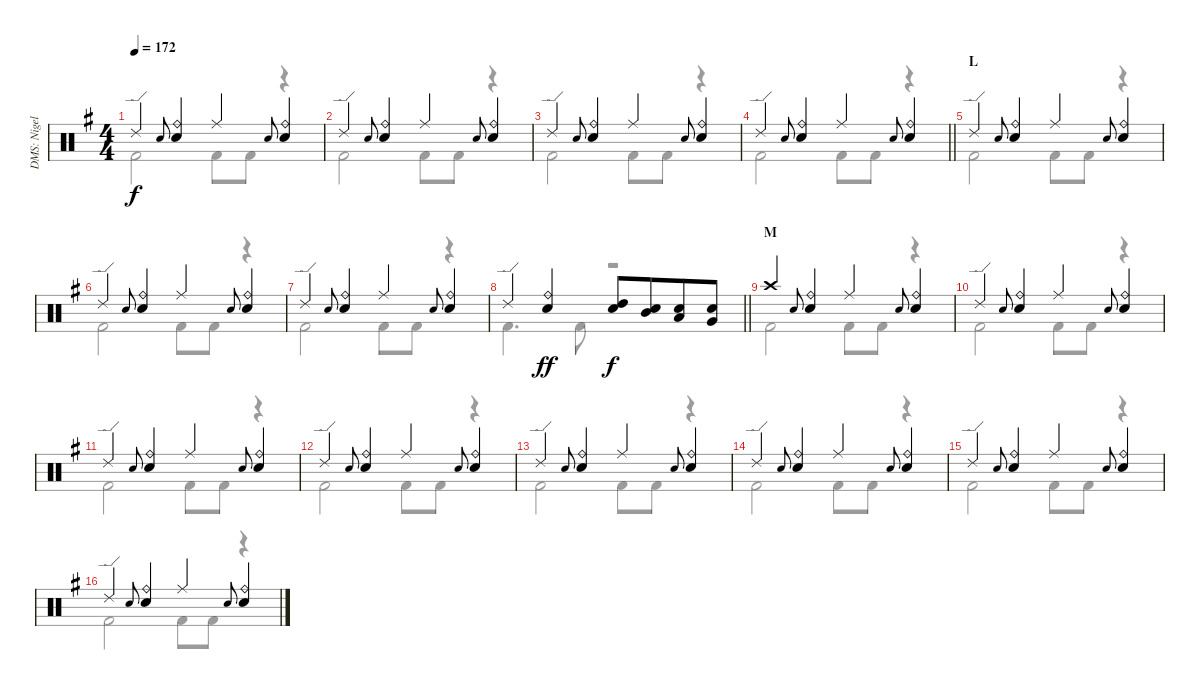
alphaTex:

\track ("DMS: Nigel Olsson" "DMS: Nigel") {instrument percussion}
\staff {score}
\articulation defaults
\voice
\ts (4 4)
\tempo 172
\clef neutral
\ks g "Ride (edge) 2".4{dy f} "Snare (hit) 2".8{gr onbeat}
("Ride (bell)" "Electric Snare (hit)").4 "Ride (middle)".4 "Snare (hit) 2".8{gr onbeat} ("Ride (bell)" "Electric Snare (hit)").4 |
"Ride (edge) 2".4 "Snare (hit) 2".8{gr onbeat} ("Ride (bell)" "Electric Snare (hit)").4 "Ride (middle)".4 "Snare (hit) 2".8{gr onbeat} ("Ride (bell)" "Electric Snare (hit)").4 |
"Ride (edge) 2".4 "Snare (hit) 2".8{gr onbeat} ("Ride (bell)" "Electric Snare (hit)").4 "Ride (middle)".4 "Snare (hit) 2".8{gr onbeat} ("Ride (bell)" "Electric Snare (hit)").4 |
\barLineRight lightlight "Ride (edge) 2".4 "Snare (hit) 2".8{gr onbeat}
("Ride (bell)" "Electric Snare (hit)").4 "Ride (middle)".4 "Snare (hit) 2".8{gr onbeat} ("Ride (bell)" "Electric Snare (hit)").4 |
\section ("" "L")
"Ride (edge) 2".4 "Snare (hit) 2".8{gr onbeat} ("Ride (bell)" "Electric Snare (hit)").4 "Ride (middle)".4 "Snare (hit) 2".8{gr onbeat} ("Ride (bell)" "Electric Snare (hit)").4 |
"Ride (edge) 2".4 "Snare (hit) 2".8{gr onbeat} ("Ride (bell)" "Electric Snare (hit)").4 "Ride (middle)".4 "Snare (hit) 2".8{gr onbeat} ("Ride (bell)" "Electric Snare (hit)").4 |
"Ride (edge) 2".4 "Snare (hit) 2".8{gr onbeat} ("Ride (bell)" "Electric Snare (hit)").4 "Ride (middle)".4 "Snare (hit) 2".8{gr onbeat} ("Ride (bell)" "Electric Snare (hit)").4 |
\barLineRight lightlight "Ride (edge) 2".4
("Ride (bell)" "Electric Snare (hit)").4{dy ff} ("Electric Snare (hit)" "High Tom (hit)").8{dy f} ("Electric Snare (hit)" "Mid Tom (hit)").8{beam merge} ("Electric Snare (hit)" "Low Tom (hit)").8 ("Electric Snare (hit)" "Very Low Tom (hit)").8 |
\section ("" "M")
"Crash high (hit)".4 "Snare (hit) 2".8{gr onbeat} ("Ride (bell)" "Electric Snare (hit)").4 "Ride (middle)".4 "Snare (hit) 2".8{gr onbeat} ("Ride (bell)" "Electric Snare (hit)").4 |
"Ride (edge) 2".4 "Snare (hit) 2".8{gr onbeat} ("Ride (bell)" "Electric Snare (hit)").4 "Ride (middle)".4 "Snare (hit) 2".8{gr onbeat} ("Ride (bell)" "Electric Snare (hit)").4 |
"Ride (edge) 2".4 "Snare (hit) 2".8{gr onbeat} ("Ride (bell)" "Electric Snare (hit)").4 "Ride (middle)".4 "Snare (hit) 2".8{gr onbeat} ("Ride (bell)" "Electric Snare (hit)").4 |
"Ride (edge) 2".4 "Snare (hit) 2".8{gr onbeat} ("Ride (bell)" "Electric Snare (hit)").4 "Ride (middle)".4 "Snare (hit) 2".8{gr onbeat} ("Ride (bell)" "Electric Snare (hit)").4 |
"Ride (edge) 2".4 "Snare (hit) 2".8{gr onbeat} ("Ride (bell)" "Electric Snare (hit)").4 "Ride (middle)".4 "Snare (hit) 2".8{gr onbeat} ("Ride (bell)" "Electric Snare (hit)").4 |
"Ride (edge) 2".4 "Snare (hit) 2".8{gr onbeat} ("Ride (bell)" "Electric Snare (hit)").4 "Ride (middle)".4 "Snare (hit) 2".8{gr onbeat} ("Ride (bell)" "Electric Snare (hit)").4 |
"Ride (edge) 2".4 "Snare (hit) 2".8{gr onbeat} ("Ride (bell)" "Electric Snare (hit)").4 "Ride (middle)".4 "Snare (hit) 2".8{gr onbeat} ("Ride (bell)" "Electric Snare (hit)").4 |
"Ride (edge) 2".4 "Snare (hit) 2".8{gr onbeat} ("Ride (bell)" "Electric Snare (hit)").4 "Ride (middle)".4 "Snare (hit) 2".8{gr onbeat} ("Ride (bell)" "Electric Snare (hit)").4
\voice
\clef neutral
\ottava regular
\simile none
\ks g "Kick (hit) 2".2{dy f} "Kick (hit) 2".8 "Kick (hit) 2".8
r.4 |
"Kick (hit) 2".2 "Kick (hit) 2".8 "Kick (hit) 2".8 r.4 |
"Kick (hit) 2".2 "Kick (hit) 2".8 "Kick (hit) 2".8 r.4 |
\barLineRight lightlight "Kick (hit) 2".2 "Kick (hit) 2".8 "Kick (hit) 2".8
r.4 |
"Kick (hit) 2".2 "Kick (hit) 2".8 "Kick (hit) 2".8 r.4 |
"Kick (hit) 2".2 "Kick (hit) 2".8 "Kick (hit) 2".8 r.4 |
"Kick (hit) 2".2 "Kick (hit) 2".8 "Kick (hit) 2".8 r.4 |
\barLineRight lightlight "Kick (hit) 2".4{d} "Kick (hit) 2".8
r.2 |
"Kick (hit) 2".2 "Kick (hit) 2".8 "Kick (hit) 2".8 r.4 |
"Kick (hit) 2".2 "Kick (hit) 2".8 "Kick (hit) 2".8 r.4 |
"Kick (hit) 2".2 "Kick (hit) 2".8 "Kick (hit) 2".8 r.4 |
"Kick (hit) 2".2 "Kick (hit) 2".8 "Kick (hit) 2".8 r.4 |
"Kick (hit) 2".2 "Kick (hit) 2".8 "Kick (hit) 2".8 r.4 |
"Kick (hit) 2".2 "Kick (hit) 2".8 "Kick (hit) 2".8 r.4 |
"Kick (hit) 2".2 "Kick (hit) 2".8 "Kick (hit) 2".8 r.4 |
"Kick (hit) 2".2 "Kick (hit) 2".8 "Kick (hit) 2".8 r.4
